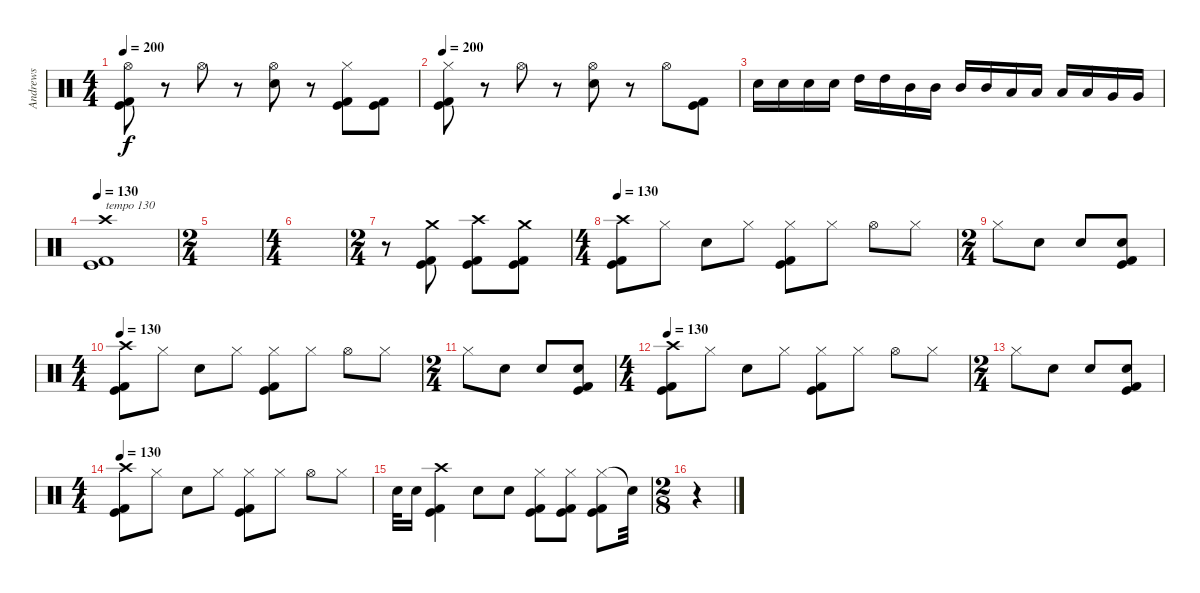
\track ("Andrews" "Andrews") {instrument percussion}
\staff {score}
\articulation defaults
\ts (4 4)
\tempo 200
\clef neutral
\ks c
("Hi-Hat (open)" "Kick (hit) 2" "Kick (hit)").8{dy f} r.8 "Hi-Hat (open)".8 r.8 ("Hi-Hat (open)" "Electric Snare (hit)").8 r.8 ("Hi-Hat (closed)" "Kick (hit) 2" "Kick (hit)").8 ("Kick (hit) 2" "Kick (hit)").8 |
\tempo 200
("Hi-Hat (closed)" "Kick (hit) 2" "Kick (hit)").8 r.8 "Hi-Hat (open)".8 r.8 ("Hi-Hat (open)" "Electric Snare (hit)").8 r.8 "Hi-Hat (open)".8 ("Kick (hit) 2" "Kick (hit)").8 |
"Electric Snare (hit)".16 "Electric Snare (hit)".16 "Electric Snare (hit)".16 "Electric Snare (hit)".16 "High Tom (hit)".16 "High Tom (hit)".16 "Mid Tom (hit)".16 "Mid Tom (hit)".16 "Mid Tom (hit)".16 "Mid Tom (hit)".16 "Low Tom (hit)".16 "Low Tom (hit)".16 "Low Tom (hit)".16 "Low Tom (hit)".16 "Very Low Tom (hit)".16 "Very Low Tom (hit)".16 |
\tempo 130
("Crash high (hit)" "Kick (hit) 2" "Kick (hit)").1{txt "tempo 130"} |
\ts (2 4)
|
\ts (4 4)
|
\ts (2 4)
r.8 ("Crash medium (hit)" "Kick (hit) 2" "Kick (hit)").8 ("Crash high (hit)" "Kick (hit) 2" "Kick (hit)").8 ("Crash medium (hit)" "Kick (hit) 2" "Kick (hit)").8 |
\ts (4 4)
\tempo 130
("Crash high (hit)" "Kick (hit) 2" "Kick (hit)").8 "Hi-Hat (closed)".8 "Electric Snare (hit)".8 "Hi-Hat (closed)".8 ("Hi-Hat (closed)" "Kick (hit) 2" "Kick (hit)").8 "Hi-Hat (closed)".8 "Hi-Hat (open)".8 "Hi-Hat (closed)".8 |
\ts (2 4)
"Hi-Hat (closed)".8 "Electric Snare (hit)".8 "Electric Snare (hit)".8 ("Electric Snare (hit)" "Kick (hit) 2" "Kick (hit)").8 |
\ts (4 4)
\tempo 130
("Crash high (hit)" "Kick (hit) 2" "Kick (hit)").8 "Hi-Hat (closed)".8 "Electric Snare (hit)".8 "Hi-Hat (closed)".8 ("Hi-Hat (closed)" "Kick (hit) 2" "Kick (hit)").8 "Hi-Hat (closed)".8 "Hi-Hat (open)".8 "Hi-Hat (closed)".8 |
\ts (2 4)
"Hi-Hat (closed)".8 "Electric Snare (hit)".8 "Electric Snare (hit)".8 ("Electric Snare (hit)" "Kick (hit) 2" "Kick (hit)").8 |
\ts (4 4)
\tempo 130
("Crash high (hit)" "Kick (hit) 2" "Kick (hit)").8 "Hi-Hat (closed)".8 "Electric Snare (hit)".8 "Hi-Hat (closed)".8 ("Hi-Hat (closed)" "Kick (hit) 2" "Kick (hit)").8 "Hi-Hat (closed)".8 "Hi-Hat (open)".8 "Hi-Hat (closed)".8 |
\ts (2 4)
"Hi-Hat (closed)".8 "Electric Snare (hit)".8 "Electric Snare (hit)".8 ("Electric Snare (hit)" "Kick (hit) 2" "Kick (hit)").8 |
\ts (4 4)
\tempo 130
("Crash high (hit)" "Kick (hit) 2" "Kick (hit)").8 "Hi-Hat (closed)".8 "Electric Snare (hit)".8 "Hi-Hat (closed)".8 ("Hi-Hat (closed)" "Kick (hit) 2" "Kick (hit)").8 "Hi-Hat (closed)".8 "Hi-Hat (open)".8 "Hi-Hat (closed)".8 |
"Electric Snare (hit)".32 "Electric Snare (hit)".16 ("Crash high (hit)" "Kick (hit) 2" "Kick (hit)").4 "Electric Snare (hit)".8 "Electric Snare (hit)".8 ("Hi-Hat (closed)" "Kick (hit) 2" "Kick (hit)").8 ("Hi-Hat (closed)" "Kick (hit) 2" "Kick (hit)").8 ("Hi-Hat (closed)" "Kick (hit) 2" "Kick (hit)").8 "Snare (hit)"{t}.32 |
\ts (2 8)
r.4
